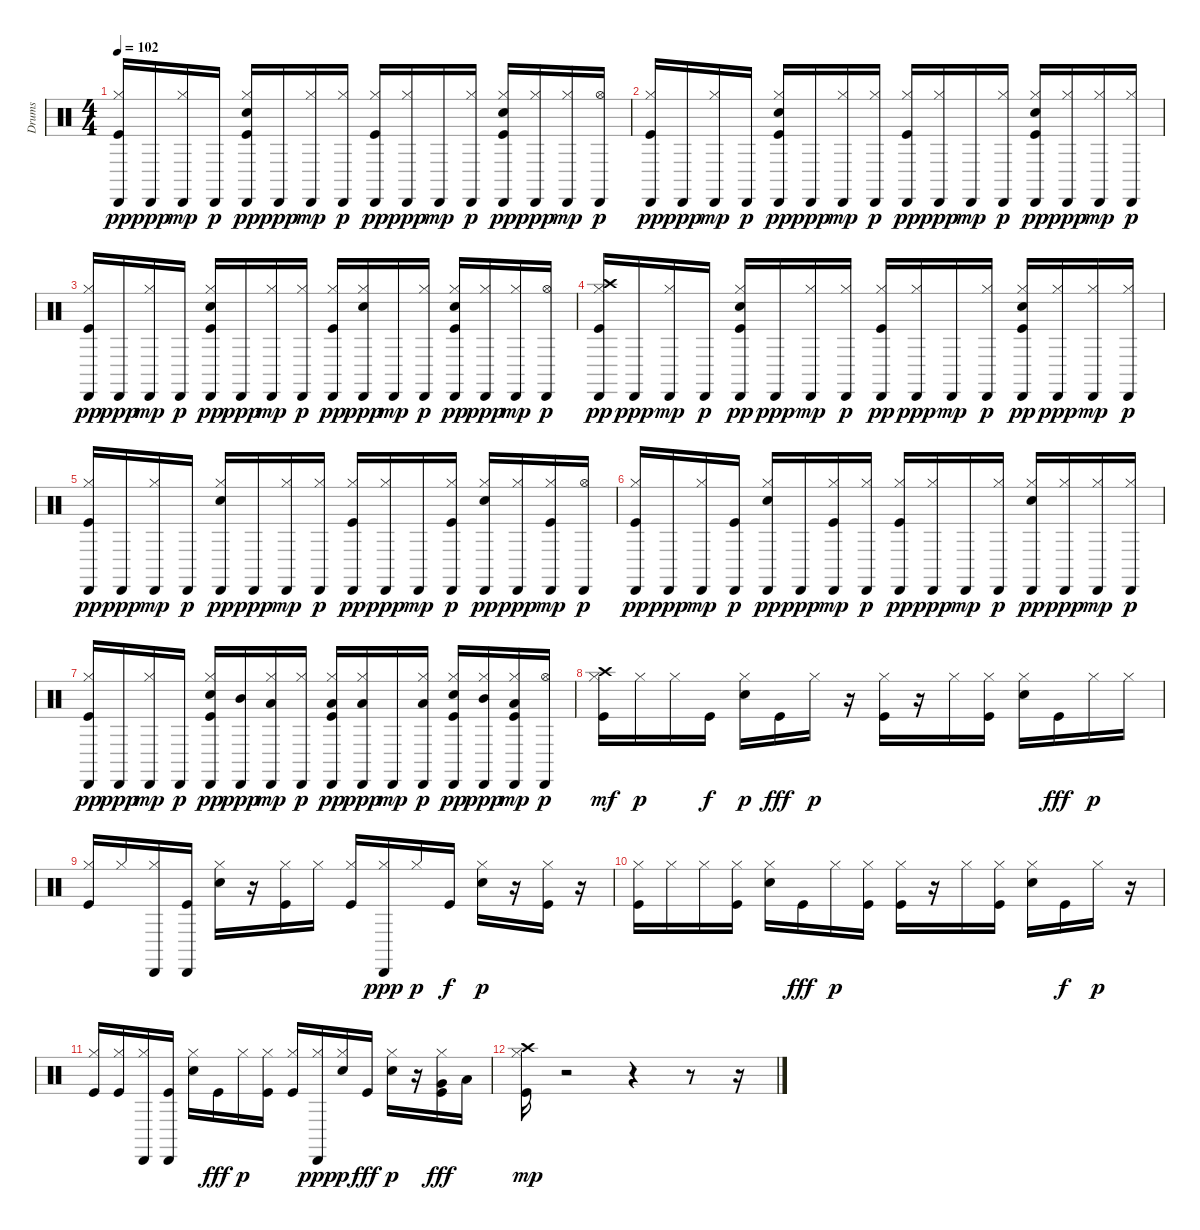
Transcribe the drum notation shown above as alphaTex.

\track ("Drums" "Drums") {instrument percussion}
\staff {score}
\articulation defaults
\ts (4 4)
\tempo 102
\clef neutral
\ks c
("Kick (hit)" "Hi-Hat (closed)" "Cabasa (hit)").16{dy pp} "Cabasa (hit)".16{dy ppp} ("Hi-Hat (closed)" "Cabasa (hit)").16{dy mp} "Cabasa (hit)".16{dy p} ("Kick (hit)" "Snare (hit) 2" "Hi-Hat (closed)" "Cabasa (hit)").16{dy pp} "Cabasa (hit)".16{dy ppp} ("Hi-Hat (closed)" "Cabasa (hit)").16{dy mp} ("Hi-Hat (closed)" "Cabasa (hit)").16{dy p} ("Kick (hit)" "Hi-Hat (closed)" "Cabasa (hit)").16{dy pp} ("Hi-Hat (closed)" "Cabasa (hit)").16{dy ppp} "Cabasa (hit)".16{dy mp} ("Hi-Hat (closed)" "Cabasa (hit)").16{dy p} ("Kick (hit)" "Snare (hit) 2" "Hi-Hat (closed)" "Cabasa (hit)").16{dy pp} ("Hi-Hat (closed)" "Cabasa (hit)").16{dy ppp} ("Hi-Hat (closed)" "Cabasa (hit)").16{dy mp} ("Hi-Hat (open)" "Cabasa (hit)").16{dy p} |
("Kick (hit)" "Hi-Hat (closed)" "Cabasa (hit)").16{dy pp} "Cabasa (hit)".16{dy ppp} ("Hi-Hat (closed)" "Cabasa (hit)").16{dy mp} "Cabasa (hit)".16{dy p} ("Kick (hit)" "Snare (hit) 2" "Hi-Hat (closed)" "Cabasa (hit)").16{dy pp} "Cabasa (hit)".16{dy ppp} ("Hi-Hat (closed)" "Cabasa (hit)").16{dy mp} ("Hi-Hat (closed)" "Cabasa (hit)").16{dy p} ("Kick (hit)" "Hi-Hat (closed)" "Cabasa (hit)").16{dy pp} ("Hi-Hat (closed)" "Cabasa (hit)").16{dy ppp} "Cabasa (hit)".16{dy mp} ("Hi-Hat (closed)" "Cabasa (hit)").16{dy p} ("Kick (hit)" "Snare (hit) 2" "Hi-Hat (closed)" "Cabasa (hit)").16{dy pp} ("Hi-Hat (closed)" "Cabasa (hit)").16{dy ppp} ("Hi-Hat (closed)" "Cabasa (hit)").16{dy mp} ("Hi-Hat (closed)" "Cabasa (hit)").16{dy p} |
("Kick (hit)" "Hi-Hat (closed)" "Cabasa (hit)").16{dy pp} "Cabasa (hit)".16{dy ppp} ("Hi-Hat (closed)" "Cabasa (hit)").16{dy mp} "Cabasa (hit)".16{dy p} ("Kick (hit)" "Snare (hit) 2" "Hi-Hat (closed)" "Cabasa (hit)").16{dy pp} "Cabasa (hit)".16{dy ppp} ("Hi-Hat (closed)" "Cabasa (hit)").16{dy mp} ("Hi-Hat (closed)" "Cabasa (hit)").16{dy p} ("Kick (hit)" "Hi-Hat (closed)" "Cabasa (hit)").16{dy pp} ("Snare (hit) 2" "Hi-Hat (closed)" "Cabasa (hit)").16{dy ppp} "Cabasa (hit)".16{dy mp} ("Hi-Hat (closed)" "Cabasa (hit)").16{dy p} ("Kick (hit)" "Snare (hit) 2" "Hi-Hat (closed)" "Cabasa (hit)").16{dy pp} ("Hi-Hat (closed)" "Cabasa (hit)").16{dy ppp} ("Hi-Hat (closed)" "Cabasa (hit)").16{dy mp} ("Hi-Hat (open)" "Cabasa (hit)").16{dy p} |
("Kick (hit)" "Hi-Hat (closed)" "Crash high (hit)" "Cabasa (hit)").16{dy pp} "Cabasa (hit)".16{dy ppp} ("Hi-Hat (closed)" "Cabasa (hit)").16{dy mp} "Cabasa (hit)".16{dy p} ("Kick (hit)" "Snare (hit) 2" "Hi-Hat (closed)" "Cabasa (hit)").16{dy pp} "Cabasa (hit)".16{dy ppp} ("Hi-Hat (closed)" "Cabasa (hit)").16{dy mp} ("Hi-Hat (closed)" "Cabasa (hit)").16{dy p} ("Kick (hit)" "Hi-Hat (closed)" "Cabasa (hit)").16{dy pp} ("Hi-Hat (closed)" "Cabasa (hit)").16{dy ppp} "Cabasa (hit)".16{dy mp} ("Hi-Hat (closed)" "Cabasa (hit)").16{dy p} ("Kick (hit)" "Snare (hit) 2" "Hi-Hat (closed)" "Cabasa (hit)").16{dy pp} ("Hi-Hat (closed)" "Cabasa (hit)").16{dy ppp} ("Hi-Hat (closed)" "Cabasa (hit)").16{dy mp} ("Hi-Hat (closed)" "Cabasa (hit)").16{dy p} |
("Kick (hit)" "Hi-Hat (closed)" "Cabasa (hit)").16{dy pp} "Cabasa (hit)".16{dy ppp} ("Hi-Hat (closed)" "Cabasa (hit)").16{dy mp} "Cabasa (hit)".16{dy p} ("Snare (hit) 2" "Hi-Hat (closed)" "Cabasa (hit)").16{dy pp} "Cabasa (hit)".16{dy ppp} ("Hi-Hat (closed)" "Cabasa (hit)").16{dy mp} ("Hi-Hat (closed)" "Cabasa (hit)").16{dy p} ("Kick (hit)" "Hi-Hat (closed)" "Cabasa (hit)").16{dy pp} ("Hi-Hat (closed)" "Cabasa (hit)").16{dy ppp} "Cabasa (hit)".16{dy mp} ("Kick (hit)" "Hi-Hat (closed)" "Cabasa (hit)").16{dy p} ("Snare (hit) 2" "Hi-Hat (closed)" "Cabasa (hit)").16{dy pp} ("Hi-Hat (closed)" "Cabasa (hit)").16{dy ppp} ("Kick (hit)" "Hi-Hat (closed)" "Cabasa (hit)").16{dy mp} ("Hi-Hat (open)" "Cabasa (hit)").16{dy p} |
("Kick (hit)" "Hi-Hat (closed)" "Cabasa (hit)").16{dy pp} "Cabasa (hit)".16{dy ppp} ("Hi-Hat (closed)" "Cabasa (hit)").16{dy mp} ("Kick (hit)" "Cabasa (hit)").16{dy p} ("Snare (hit) 2" "Hi-Hat (closed)" "Cabasa (hit)").16{dy pp} "Cabasa (hit)".16{dy ppp} ("Kick (hit)" "Hi-Hat (closed)" "Cabasa (hit)").16{dy mp} ("Hi-Hat (closed)" "Cabasa (hit)").16{dy p} ("Kick (hit)" "Hi-Hat (closed)" "Cabasa (hit)").16{dy pp} ("Hi-Hat (closed)" "Cabasa (hit)").16{dy ppp} "Cabasa (hit)".16{dy mp} ("Hi-Hat (closed)" "Cabasa (hit)").16{dy p} ("Snare (hit) 2" "Hi-Hat (closed)" "Cabasa (hit)").16{dy pp} ("Hi-Hat (closed)" "Cabasa (hit)").16{dy ppp} ("Hi-Hat (closed)" "Cabasa (hit)").16{dy mp} ("Hi-Hat (closed)" "Cabasa (hit)").16{dy p} |
("Kick (hit)" "Hi-Hat (closed)" "Cabasa (hit)").16{dy pp} "Cabasa (hit)".16{dy ppp} ("Hi-Hat (closed)" "Cabasa (hit)").16{dy mp} "Cabasa (hit)".16{dy p} ("Kick (hit)" "Snare (hit) 2" "Hi-Hat (closed)" "Cabasa (hit)").16{dy pp} ("Mid Tom (hit)" "Cabasa (hit)").16{dy ppp} ("Hi-Hat (closed)" "Low Tom (hit)" "Cabasa (hit)").16{dy mp} ("Hi-Hat (closed)" "Cabasa (hit)").16{dy p} ("Kick (hit)" "Hi-Hat (closed)" "Low Tom (hit)" "Cabasa (hit)").16{dy pp} ("Hi-Hat (closed)" "Low Tom (hit)" "Cabasa (hit)").16{dy ppp} "Cabasa (hit)".16{dy mp} ("Hi-Hat (closed)" "Low Tom (hit)" "Cabasa (hit)").16{dy p} ("Kick (hit)" "Snare (hit) 2" "Hi-Hat (closed)" "Cabasa (hit)").16{dy pp} ("Hi-Hat (closed)" "Mid Tom (hit)" "Cabasa (hit)").16{dy ppp} ("Kick (hit)" "Low Floor Tom (hit)" "Hi-Hat (closed)" "Cabasa (hit)").16{dy mp} ("Hi-Hat (open)" "Cabasa (hit)").16{dy p} |
("Kick (hit)" "Hi-Hat (closed)" "Crash high (hit)").16{dy mf} "Hi-Hat (closed)".16{dy p} "Hi-Hat (closed)".16 "Kick (hit)".16{dy f} ("Snare (hit) 2" "Hi-Hat (closed)").16{dy p} "Kick (hit)".16{dy fff} "Hi-Hat (closed)".16{dy p} r.16 ("Kick (hit)" "Hi-Hat (closed)").16 r.16 "Hi-Hat (closed)".16 ("Kick (hit)" "Hi-Hat (closed)").16 ("Snare (hit) 2" "Hi-Hat (closed)").16 "Kick (hit)".16{dy fff} "Hi-Hat (closed)".16{dy p} "Hi-Hat (closed)".16 |
("Kick (hit)" "Hi-Hat (closed)").16 "Hi-Hat (closed)".16 ("Hi-Hat (closed)" "Cabasa (hit)").16 ("Kick (hit)" "Cabasa (hit)").16 ("Snare (hit) 2" "Hi-Hat (closed)").16 r.16 ("Kick (hit)" "Hi-Hat (closed)").16 "Hi-Hat (closed)".16 ("Kick (hit)" "Hi-Hat (closed)").16 ("Hi-Hat (closed)" "Cabasa (hit)").16{dy ppp} "Hi-Hat (closed)".16{dy p} "Kick (hit)".16{dy f} ("Snare (hit) 2" "Hi-Hat (closed)").16{dy p} r.16 ("Kick (hit)" "Hi-Hat (closed)").16 r.16 |
("Kick (hit)" "Hi-Hat (closed)").16 "Hi-Hat (closed)".16 "Hi-Hat (closed)".16 ("Kick (hit)" "Hi-Hat (closed)").16 ("Snare (hit) 2" "Hi-Hat (closed)").16 "Kick (hit)".16{dy fff} "Hi-Hat (closed)".16{dy p} ("Kick (hit)" "Hi-Hat (closed)").16 ("Kick (hit)" "Hi-Hat (closed)").16 r.16 "Hi-Hat (closed)".16 ("Kick (hit)" "Hi-Hat (closed)").16 ("Snare (hit) 2" "Hi-Hat (closed)").16 "Kick (hit)".16{dy f} "Hi-Hat (closed)".16{dy p} r.16 |
("Kick (hit)" "Hi-Hat (closed)").16 ("Kick (hit)" "Hi-Hat (closed)").16 ("Hi-Hat (closed)" "Cabasa (hit)").16 ("Kick (hit)" "Cabasa (hit)").16 ("Snare (hit) 2" "Hi-Hat (closed)").16 "Kick (hit)".16{dy fff} "Hi-Hat (closed)".16{dy p} ("Kick (hit)" "Hi-Hat (closed)").16 ("Kick (hit)" "Hi-Hat (closed)").16 ("Hi-Hat (closed)" "Cabasa (hit)").16{dy ppp} ("Snare (hit) 2" "Hi-Hat (closed)").16{dy p} "Kick (hit)".16{dy fff} ("Snare (hit) 2" "Hi-Hat (closed)").16{dy p} r.16 ("Kick (hit)" "Hi-Hat (closed)" "Very Low Tom (hit)").16{dy fff} "Low Floor Tom (hit)".16 |
("Kick (hit)" "Hi-Hat (closed)" "Crash high (hit)").16{dy mp} r.2 r.4 r.8 r.16
